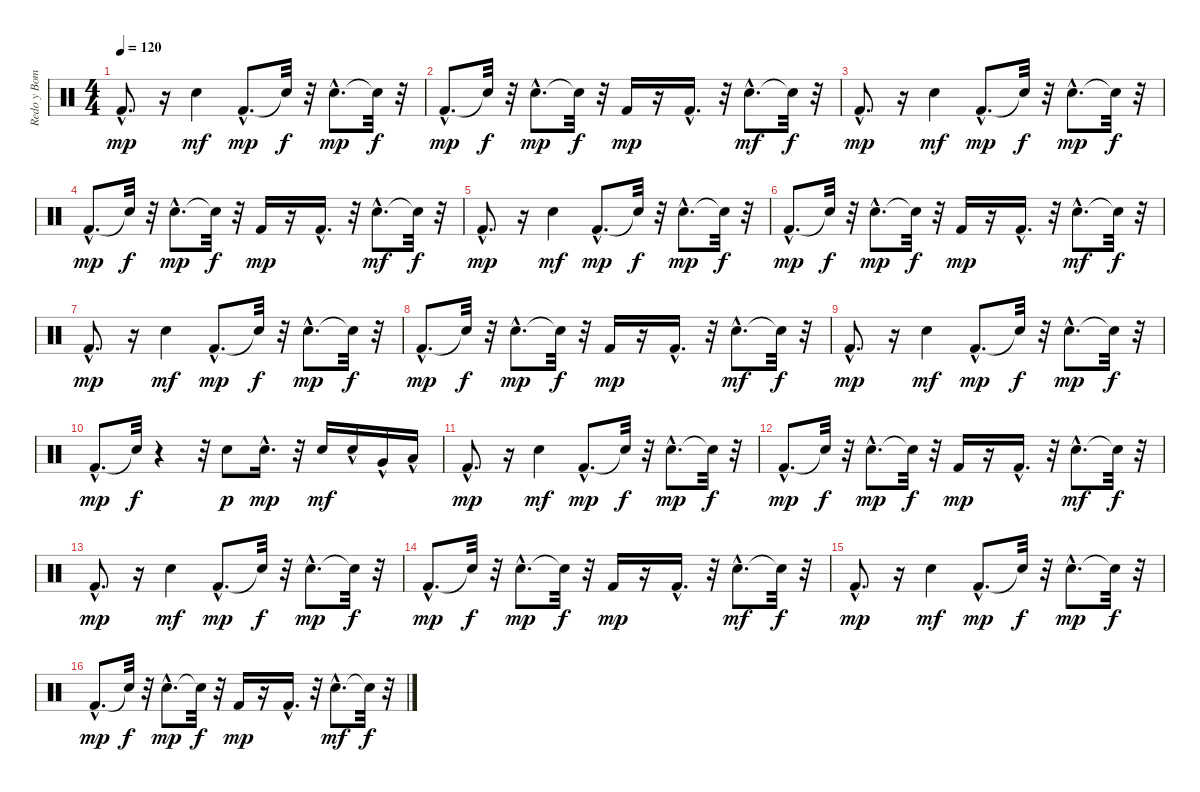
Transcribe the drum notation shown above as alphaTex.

\track ("Redo y Bombo" "Redo y Bom") {instrument percussion}
\staff {score}
\articulation defaults
\ts (4 4)
\tempo 120
\clef neutral
\ks c "Kick (hit) 2"{hac}.8{d dy mp}
r.16 "Snare (hit) 2".4{dy mf} "Kick (hit) 2"{hac}.8{d dy mp} "Snare (hit)"{t}.32{dy f} r.32 "Snare (hit) 2"{hac}.8{d dy mp} "Snare (hit)"{t}.32{dy f} r.32 |
"Kick (hit) 2"{hac}.8{d dy mp} "Snare (hit)"{t}.32{dy f} r.32 "Snare (hit) 2"{hac}.8{d dy mp} "Snare (hit)"{t}.32{dy f} r.32 "Kick (hit) 2".16{dy mp} r.16 "Kick (hit) 2"{hac}.16{d} r.32 "Snare (hit) 2"{hac}.8{d dy mf} "Snare (hit)"{t}.32{dy f} r.32 |
"Kick (hit) 2"{hac}.8{d dy mp} r.16 "Snare (hit) 2".4{dy mf} "Kick (hit) 2"{hac}.8{d dy mp} "Snare (hit)"{t}.32{dy f} r.32 "Snare (hit) 2"{hac}.8{d dy mp} "Snare (hit)"{t}.32{dy f} r.32 |
"Kick (hit) 2"{hac}.8{d dy mp} "Snare (hit)"{t}.32{dy f} r.32 "Snare (hit) 2"{hac}.8{d dy mp} "Snare (hit)"{t}.32{dy f} r.32 "Kick (hit) 2".16{dy mp} r.16 "Kick (hit) 2"{hac}.16{d} r.32 "Snare (hit) 2"{hac}.8{d dy mf} "Snare (hit)"{t}.32{dy f} r.32 |
"Kick (hit) 2"{hac}.8{d dy mp} r.16 "Snare (hit) 2".4{dy mf} "Kick (hit) 2"{hac}.8{d dy mp} "Snare (hit)"{t}.32{dy f} r.32 "Snare (hit) 2"{hac}.8{d dy mp} "Snare (hit)"{t}.32{dy f} r.32 |
"Kick (hit) 2"{hac}.8{d dy mp} "Snare (hit)"{t}.32{dy f} r.32 "Snare (hit) 2"{hac}.8{d dy mp} "Snare (hit)"{t}.32{dy f} r.32 "Kick (hit) 2".16{dy mp} r.16 "Kick (hit) 2"{hac}.16{d} r.32 "Snare (hit) 2"{hac}.8{d dy mf} "Snare (hit)"{t}.32{dy f} r.32 |
"Kick (hit) 2"{hac}.8{d dy mp} r.16 "Snare (hit) 2".4{dy mf} "Kick (hit) 2"{hac}.8{d dy mp} "Snare (hit)"{t}.32{dy f} r.32 "Snare (hit) 2"{hac}.8{d dy mp} "Snare (hit)"{t}.32{dy f} r.32 |
"Kick (hit) 2"{hac}.8{d dy mp} "Snare (hit)"{t}.32{dy f} r.32 "Snare (hit) 2"{hac}.8{d dy mp} "Snare (hit)"{t}.32{dy f} r.32 "Kick (hit) 2".16{dy mp} r.16 "Kick (hit) 2"{hac}.16{d} r.32 "Snare (hit) 2"{hac}.8{d dy mf} "Snare (hit)"{t}.32{dy f} r.32 |
"Kick (hit) 2"{hac}.8{d dy mp} r.16 "Snare (hit) 2".4{dy mf} "Kick (hit) 2"{hac}.8{d dy mp} "Snare (hit)"{t}.32{dy f} r.32 "Snare (hit) 2"{hac}.8{d dy mp} "Snare (hit)"{t}.32{dy f} r.32 |
"Kick (hit) 2"{hac}.8{d dy mp} "Snare (hit)"{t}.32{dy f} r.4 r.32 "Electric Snare (hit)".8{dy p} "Electric Snare (hit)"{hac}.16{d dy mp} r.32 "Electric Snare (hit)".16{dy mf} "Electric Snare (hit)"{hac}.16 "Very Low Tom (hit)"{hac}.16 "Low Floor Tom (hit)"{hac}.16 |
"Kick (hit) 2"{hac}.8{d dy mp} r.16 "Snare (hit) 2".4{dy mf} "Kick (hit) 2"{hac}.8{d dy mp} "Snare (hit)"{t}.32{dy f} r.32 "Snare (hit) 2"{hac}.8{d dy mp} "Snare (hit)"{t}.32{dy f} r.32 |
"Kick (hit) 2"{hac}.8{d dy mp} "Snare (hit)"{t}.32{dy f} r.32 "Snare (hit) 2"{hac}.8{d dy mp} "Snare (hit)"{t}.32{dy f} r.32 "Kick (hit) 2".16{dy mp} r.16 "Kick (hit) 2"{hac}.16{d} r.32 "Snare (hit) 2"{hac}.8{d dy mf} "Snare (hit)"{t}.32{dy f} r.32 |
"Kick (hit) 2"{hac}.8{d dy mp} r.16 "Snare (hit) 2".4{dy mf} "Kick (hit) 2"{hac}.8{d dy mp} "Snare (hit)"{t}.32{dy f} r.32 "Snare (hit) 2"{hac}.8{d dy mp} "Snare (hit)"{t}.32{dy f} r.32 |
"Kick (hit) 2"{hac}.8{d dy mp} "Snare (hit)"{t}.32{dy f} r.32 "Snare (hit) 2"{hac}.8{d dy mp} "Snare (hit)"{t}.32{dy f} r.32 "Kick (hit) 2".16{dy mp} r.16 "Kick (hit) 2"{hac}.16{d} r.32 "Snare (hit) 2"{hac}.8{d dy mf} "Snare (hit)"{t}.32{dy f} r.32 |
"Kick (hit) 2"{hac}.8{d dy mp} r.16 "Snare (hit) 2".4{dy mf} "Kick (hit) 2"{hac}.8{d dy mp} "Snare (hit)"{t}.32{dy f} r.32 "Snare (hit) 2"{hac}.8{d dy mp} "Snare (hit)"{t}.32{dy f} r.32 |
"Kick (hit) 2"{hac}.8{d dy mp} "Snare (hit)"{t}.32{dy f} r.32 "Snare (hit) 2"{hac}.8{d dy mp} "Snare (hit)"{t}.32{dy f} r.32 "Kick (hit) 2".16{dy mp} r.16 "Kick (hit) 2"{hac}.16{d} r.32 "Snare (hit) 2"{hac}.8{d dy mf} "Snare (hit)"{t}.32{dy f} r.32
